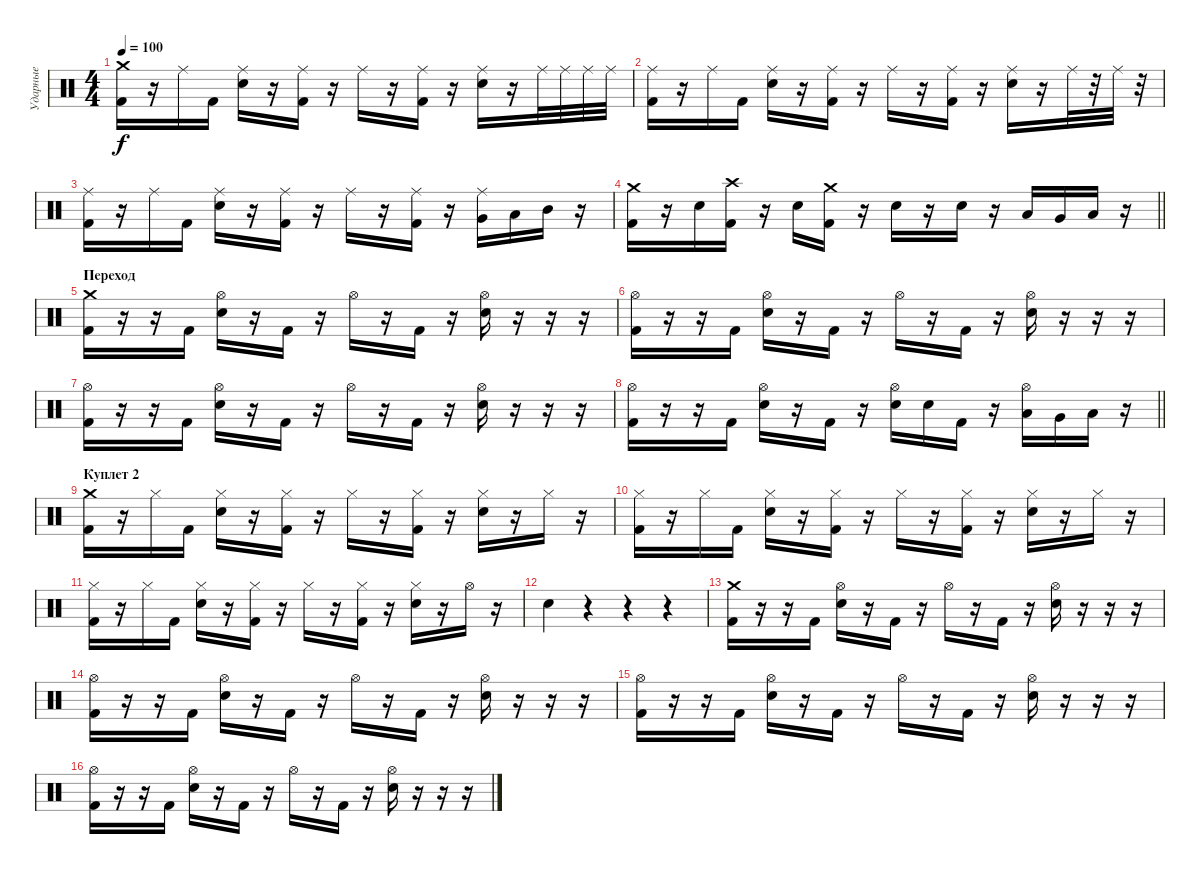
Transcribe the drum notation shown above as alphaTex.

\track ("Ударные" "Ударные") {instrument percussion}
\staff {score}
\articulation defaults
\ts (4 4)
\tempo 100
\clef neutral
\ks c
("Crash medium (hit)" "Kick (hit) 2").16{dy f} r.16 "Ride (middle)".16 "Kick (hit) 2".16 ("Ride (middle)" "Snare (hit) 2").16 r.16 ("Ride (middle)" "Kick (hit) 2").16 r.16 "Ride (middle)".16 r.16 ("Ride (middle)" "Kick (hit) 2").16 r.16 ("Ride (middle)" "Snare (hit) 2").16 r.16 "Ride (middle)".32 "Ride (middle)".32 "Ride (middle)".32 "Ride (middle)".32 |
("Ride (middle)" "Kick (hit) 2").16 r.16 "Ride (middle)".16 "Kick (hit) 2".16 ("Ride (middle)" "Snare (hit) 2").16 r.16 ("Ride (middle)" "Kick (hit) 2").16 r.16 "Ride (middle)".16 r.16 ("Ride (middle)" "Kick (hit) 2").16 r.16 ("Ride (middle)" "Snare (hit) 2").16 r.16 "Ride (middle)".32 r.32 "Ride (middle)".32 r.32 |
("Ride (middle)" "Kick (hit) 2").16 r.16 "Ride (middle)".16 "Kick (hit) 2".16 ("Ride (middle)" "Snare (hit) 2").16 r.16 ("Ride (middle)" "Kick (hit) 2").16 r.16 "Ride (middle)".16 r.16 ("Ride (middle)" "Kick (hit) 2").16 r.16 ("Ride (middle)" "Very Low Tom (hit)").16 "Low Tom (hit)".16 "Mid Tom (hit)".16 r.16 |
\barLineRight lightlight
("Crash medium (hit)" "Kick (hit) 2").16 r.16 "Snare (hit) 2".16 ("Crash high (hit)" "Kick (hit) 2").16 r.16 "Snare (hit) 2".16 ("Crash medium (hit)" "Kick (hit) 2").16 r.16 "Snare (hit) 2".16 r.16 "Snare (hit) 2".16 r.16 "Low Tom (hit)".16 "Very Low Tom (hit)".16 "Low Floor Tom (hit)".16 r.16 |
\section ("" "Переход")
("Crash medium (hit)" "Kick (hit) 2").16 r.16 r.16 "Kick (hit) 2".16 ("Hi-Hat (open)" "Snare (hit) 2").16 r.16 "Kick (hit) 2".16 r.16 "Hi-Hat (open)".16 r.16 "Kick (hit) 2".16 r.16 ("Hi-Hat (open)" "Snare (hit) 2").16 r.16 r.16 r.16 |
("Hi-Hat (open)" "Kick (hit) 2").16 r.16 r.16 "Kick (hit) 2".16 ("Hi-Hat (open)" "Snare (hit) 2").16 r.16 "Kick (hit) 2".16 r.16 "Hi-Hat (open)".16 r.16 "Kick (hit) 2".16 r.16 ("Hi-Hat (open)" "Snare (hit) 2").16 r.16 r.16 r.16 |
("Hi-Hat (open)" "Kick (hit) 2").16 r.16 r.16 "Kick (hit) 2".16 ("Hi-Hat (open)" "Snare (hit) 2").16 r.16 "Kick (hit) 2".16 r.16 "Hi-Hat (open)".16 r.16 "Kick (hit) 2".16 r.16 ("Hi-Hat (open)" "Snare (hit) 2").16 r.16 r.16 r.16 |
\barLineRight lightlight
("Hi-Hat (open)" "Kick (hit) 2").16 r.16 r.16 "Kick (hit) 2".16 ("Hi-Hat (open)" "Snare (hit) 2").16 r.16 "Kick (hit) 2".16 r.16 ("Hi-Hat (open)" "Snare (hit) 2").16 "Snare (hit) 2".16 "Kick (hit) 2".16 r.16 ("Hi-Hat (open)" "Low Tom (hit)").16 "Very Low Tom (hit)".16 "Low Floor Tom (hit)".16 r.16 |
\section ("" "Куплет 2")
("Crash medium (hit)" "Kick (hit) 2").16 r.16 "Hi-Hat (closed)".16 "Kick (hit) 2".16 ("Hi-Hat (closed)" "Snare (hit) 2").16 r.16 ("Hi-Hat (closed)" "Kick (hit) 2").16 r.16 "Hi-Hat (closed)".16 r.16 ("Hi-Hat (closed)" "Kick (hit) 2").16 r.16 ("Hi-Hat (closed)" "Snare (hit) 2").16 r.16 "Hi-Hat (closed)".16 r.16 |
("Hi-Hat (closed)" "Kick (hit) 2").16 r.16 "Hi-Hat (closed)".16 "Kick (hit) 2".16 ("Hi-Hat (closed)" "Snare (hit) 2").16 r.16 ("Hi-Hat (closed)" "Kick (hit) 2").16 r.16 "Hi-Hat (closed)".16 r.16 ("Hi-Hat (closed)" "Kick (hit) 2").16 r.16 ("Hi-Hat (closed)" "Snare (hit) 2").16 r.16 "Hi-Hat (closed)".16 r.16 |
("Hi-Hat (closed)" "Kick (hit) 2").16 r.16 "Hi-Hat (closed)".16 "Kick (hit) 2".16 ("Hi-Hat (closed)" "Snare (hit) 2").16 r.16 ("Hi-Hat (closed)" "Kick (hit) 2").16 r.16 "Hi-Hat (closed)".16 r.16 ("Hi-Hat (closed)" "Kick (hit) 2").16 r.16 ("Hi-Hat (closed)" "Snare (hit) 2").16 r.16 "Hi-Hat (open)".16 r.16 |
"Snare (hit) 2".4 r.4 r.4 r.4 |
("Crash medium (hit)" "Kick (hit) 2").16 r.16 r.16 "Kick (hit) 2".16 ("Hi-Hat (open)" "Snare (hit) 2").16 r.16 "Kick (hit) 2".16 r.16 "Hi-Hat (open)".16 r.16 "Kick (hit) 2".16 r.16 ("Hi-Hat (open)" "Snare (hit) 2").16 r.16 r.16 r.16 |
("Hi-Hat (open)" "Kick (hit) 2").16 r.16 r.16 "Kick (hit) 2".16 ("Hi-Hat (open)" "Snare (hit) 2").16 r.16 "Kick (hit) 2".16 r.16 "Hi-Hat (open)".16 r.16 "Kick (hit) 2".16 r.16 ("Hi-Hat (open)" "Snare (hit) 2").16 r.16 r.16 r.16 |
("Hi-Hat (open)" "Kick (hit) 2").16 r.16 r.16 "Kick (hit) 2".16 ("Hi-Hat (open)" "Snare (hit) 2").16 r.16 "Kick (hit) 2".16 r.16 "Hi-Hat (open)".16 r.16 "Kick (hit) 2".16 r.16 ("Hi-Hat (open)" "Snare (hit) 2").16 r.16 r.16 r.16 |
("Hi-Hat (open)" "Kick (hit) 2").16 r.16 r.16 "Kick (hit) 2".16 ("Hi-Hat (open)" "Snare (hit) 2").16 r.16 "Kick (hit) 2".16 r.16 "Hi-Hat (open)".16 r.16 "Kick (hit) 2".16 r.16 ("Hi-Hat (open)" "Snare (hit) 2").16 r.16 r.16 r.16
